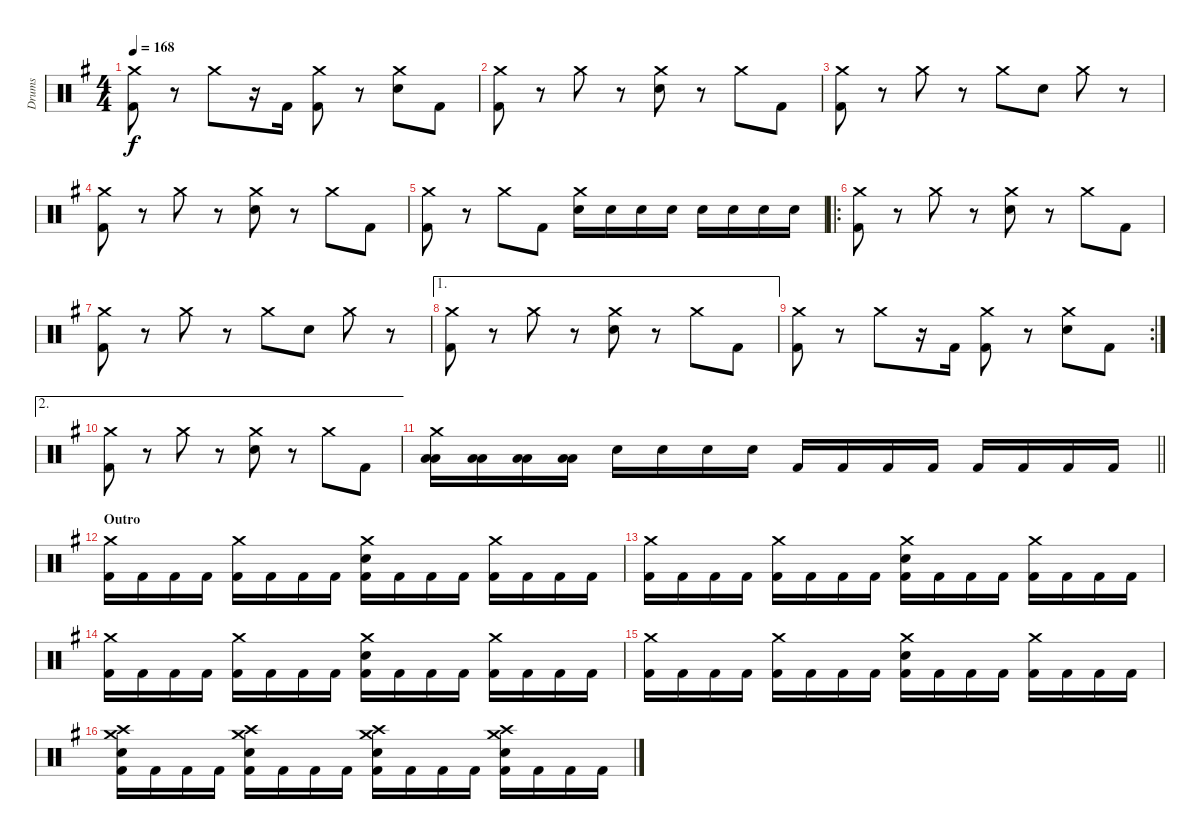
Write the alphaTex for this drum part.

\track ("Drums" "Drums") {instrument percussion}
\staff {score}
\articulation defaults
\ts (4 4)
\tempo 168
\clef neutral
\ks g
("Crash medium (hit)" "Kick (hit) 2").8{dy f} r.8 "Crash medium (hit)".8 r.16 "Kick (hit) 2".16 ("Crash medium (hit)" "Kick (hit) 2").8 r.8 ("Crash medium (hit)" "Electric Snare (hit)").8 "Kick (hit) 2".8 |
("Crash medium (hit)" "Kick (hit) 2").8 r.8 "Crash medium (hit)".8 r.8 ("Crash medium (hit)" "Electric Snare (hit)").8 r.8 "Crash medium (hit)".8 "Kick (hit) 2".8 |
("Crash medium (hit)" "Kick (hit) 2").8 r.8 "Crash medium (hit)".8 r.8 "Crash medium (hit)".8 "Electric Snare (hit)".8 "Crash medium (hit)".8 r.8 |
("Crash medium (hit)" "Kick (hit) 2").8 r.8 "Crash medium (hit)".8 r.8 ("Crash medium (hit)" "Electric Snare (hit)").8 r.8 "Crash medium (hit)".8 "Kick (hit) 2".8 |
("Crash medium (hit)" "Kick (hit) 2").8 r.8 "Crash medium (hit)".8 "Kick (hit) 2".8 ("Crash medium (hit)" "Electric Snare (hit)").16 "Electric Snare (hit)".16 "Electric Snare (hit)".16 "Electric Snare (hit)".16 "Electric Snare (hit)".16 "Electric Snare (hit)".16 "Electric Snare (hit)".16 "Electric Snare (hit)".16 |
\ro
("Crash medium (hit)" "Kick (hit) 2").8 r.8 "Crash medium (hit)".8 r.8 ("Crash medium (hit)" "Electric Snare (hit)").8 r.8 "Crash medium (hit)".8 "Kick (hit) 2".8 |
("Crash medium (hit)" "Kick (hit) 2").8 r.8 "Crash medium (hit)".8 r.8 "Crash medium (hit)".8 "Electric Snare (hit)".8 "Crash medium (hit)".8 r.8 |
\ae 1
("Crash medium (hit)" "Kick (hit) 2").8 r.8 "Crash medium (hit)".8 r.8 ("Crash medium (hit)" "Electric Snare (hit)").8 r.8 "Crash medium (hit)".8 "Kick (hit) 2".8 |
\rc 2
("Crash medium (hit)" "Kick (hit) 2").8 r.8 "Crash medium (hit)".8 r.16 "Kick (hit) 2".16 ("Crash medium (hit)" "Kick (hit) 2").8 r.8 ("Crash medium (hit)" "Electric Snare (hit)").8 "Kick (hit) 2".8 |
\ae 2
("Crash medium (hit)" "Kick (hit) 2").8 r.8 "Crash medium (hit)".8 r.8 ("Crash medium (hit)" "Electric Snare (hit)").8 r.8 "Crash medium (hit)".8 "Kick (hit) 2".8 |
\barLineRight lightlight
("Crash medium (hit)" "Low Tom (hit)" "Low Tom (hit)").16 ("Low Floor Tom (hit)" "Low Floor Tom (hit)").16 ("Low Floor Tom (hit)" "Low Floor Tom (hit)").16 ("Low Floor Tom (hit)" "Low Floor Tom (hit)").16 "Electric Snare (hit)".16 "Electric Snare (hit)".16 "Electric Snare (hit)".16 "Electric Snare (hit)".16 "Kick (hit) 2".16 "Kick (hit) 2".16 "Kick (hit) 2".16 "Kick (hit) 2".16 "Kick (hit) 2".16 "Kick (hit) 2".16 "Kick (hit) 2".16 "Kick (hit) 2".16 |
\section ("" "Outro")
("Crash medium (hit)" "Kick (hit) 2").16 "Kick (hit) 2".16 "Kick (hit) 2".16 "Kick (hit) 2".16 ("Crash medium (hit)" "Kick (hit) 2").16 "Kick (hit) 2".16 "Kick (hit) 2".16 "Kick (hit) 2".16 ("Crash medium (hit)" "Electric Snare (hit)" "Kick (hit) 2").16 "Kick (hit) 2".16 "Kick (hit) 2".16 "Kick (hit) 2".16 ("Crash medium (hit)" "Kick (hit) 2").16 "Kick (hit) 2".16 "Kick (hit) 2".16 "Kick (hit) 2".16 |
("Crash medium (hit)" "Kick (hit) 2").16 "Kick (hit) 2".16 "Kick (hit) 2".16 "Kick (hit) 2".16 ("Crash medium (hit)" "Kick (hit) 2").16 "Kick (hit) 2".16 "Kick (hit) 2".16 "Kick (hit) 2".16 ("Crash medium (hit)" "Electric Snare (hit)" "Kick (hit) 2").16 "Kick (hit) 2".16 "Kick (hit) 2".16 "Kick (hit) 2".16 ("Crash medium (hit)" "Kick (hit) 2").16 "Kick (hit) 2".16 "Kick (hit) 2".16 "Kick (hit) 2".16 |
("Crash medium (hit)" "Kick (hit) 2").16 "Kick (hit) 2".16 "Kick (hit) 2".16 "Kick (hit) 2".16 ("Crash medium (hit)" "Kick (hit) 2").16 "Kick (hit) 2".16 "Kick (hit) 2".16 "Kick (hit) 2".16 ("Crash medium (hit)" "Electric Snare (hit)" "Kick (hit) 2").16 "Kick (hit) 2".16 "Kick (hit) 2".16 "Kick (hit) 2".16 ("Crash medium (hit)" "Kick (hit) 2").16 "Kick (hit) 2".16 "Kick (hit) 2".16 "Kick (hit) 2".16 |
("Crash medium (hit)" "Kick (hit) 2").16 "Kick (hit) 2".16 "Kick (hit) 2".16 "Kick (hit) 2".16 ("Crash medium (hit)" "Kick (hit) 2").16 "Kick (hit) 2".16 "Kick (hit) 2".16 "Kick (hit) 2".16 ("Crash medium (hit)" "Electric Snare (hit)" "Kick (hit) 2").16 "Kick (hit) 2".16 "Kick (hit) 2".16 "Kick (hit) 2".16 ("Crash medium (hit)" "Kick (hit) 2").16 "Kick (hit) 2".16 "Kick (hit) 2".16 "Kick (hit) 2".16 |
("Crash medium (hit)" "Crash high (hit)" "Snare (hit) 2" "Kick (hit) 2").16 "Kick (hit) 2".16 "Kick (hit) 2".16 "Kick (hit) 2".16 ("Crash medium (hit)" "Crash high (hit)" "Snare (hit) 2" "Kick (hit) 2").16 "Kick (hit) 2".16 "Kick (hit) 2".16 "Kick (hit) 2".16 ("Crash medium (hit)" "Crash high (hit)" "Snare (hit) 2" "Kick (hit) 2").16 "Kick (hit) 2".16 "Kick (hit) 2".16 "Kick (hit) 2".16 ("Crash medium (hit)" "Crash high (hit)" "Snare (hit) 2" "Kick (hit) 2").16 "Kick (hit) 2".16 "Kick (hit) 2".16 "Kick (hit) 2".16
